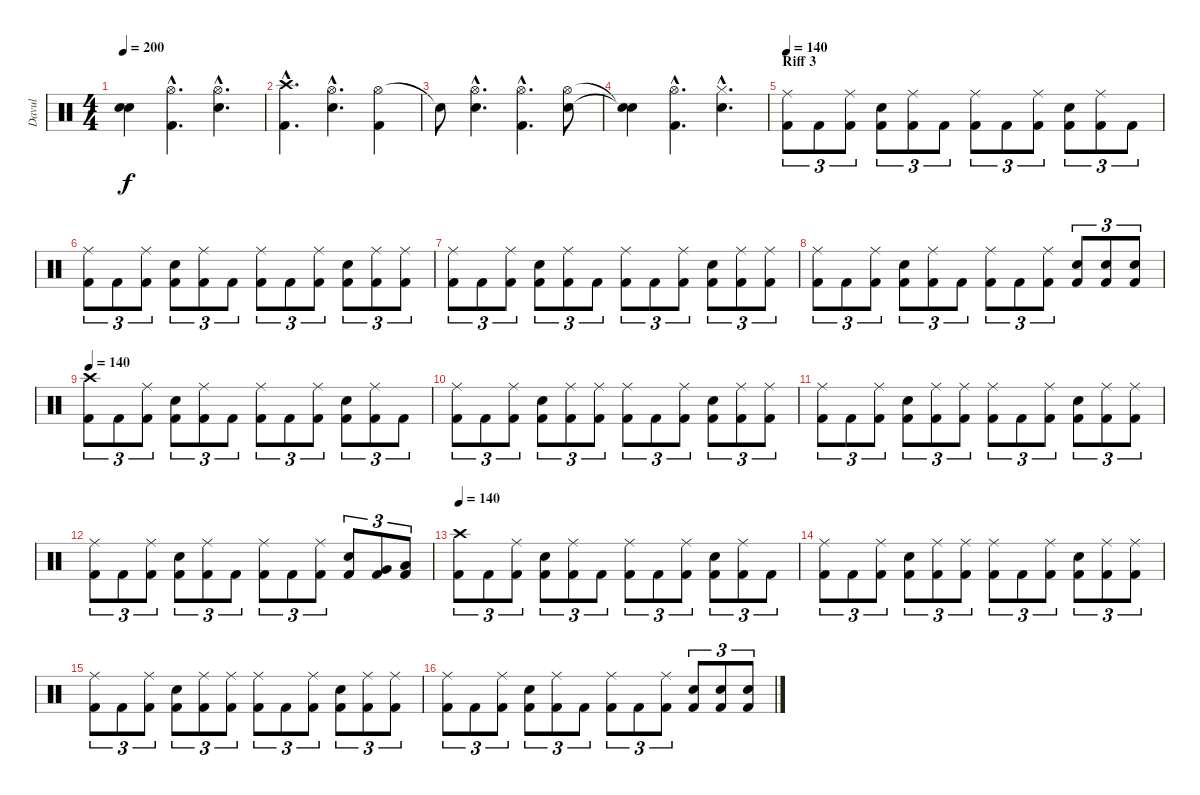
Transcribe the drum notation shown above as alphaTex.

\track ("Davul" "Davul") {instrument percussion}
\staff {score}
\articulation defaults
\ts (4 4)
\tempo 200
\clef neutral
\ks c
("Snare (hit)"{t} "Snare (hit)"{t}).4{dy f} ("Hi-Hat (open)"{hac} "Kick (hit) 2"{hac}).4{d} ("Hi-Hat (open)"{hac} "Electric Snare (hit)"{hac}).4{d} |
("Crash high (hit)"{hac} "Kick (hit) 2"{hac}).4{d} ("Hi-Hat (open)"{hac} "Electric Snare (hit)"{hac}).4{d} ("Hi-Hat (open)" "Kick (hit) 2").4 |
"Snare (hit)"{t}.8 ("Hi-Hat (open)"{hac} "Electric Snare (hit)"{hac}).4{d} ("Hi-Hat (open)"{hac} "Kick (hit) 2"{hac}).4{d} ("Hi-Hat (open)" "Electric Snare (hit)").8 |
("Snare (hit)"{t} "Snare (hit)"{t}).4 ("Hi-Hat (open)"{hac} "Kick (hit) 2"{hac}).4{d} ("Hi-Hat (closed)"{hac} "Electric Snare (hit)"{hac}).4{d} |
\section ("" "Riff 3")
\tempo 140
("Ride (middle)" "Kick (hit) 2").8{tu (3 2)} "Kick (hit) 2".8{tu (3 2)} ("Ride (middle)" "Kick (hit) 2").8{tu (3 2)} ("Electric Snare (hit)" "Kick (hit) 2").8{tu (3 2)} ("Ride (middle)" "Kick (hit) 2").8{tu (3 2)} "Kick (hit) 2".8{tu (3 2)} ("Ride (middle)" "Kick (hit) 2").8{tu (3 2)} "Kick (hit) 2".8{tu (3 2)} ("Ride (middle)" "Kick (hit) 2").8{tu (3 2)} ("Electric Snare (hit)" "Kick (hit) 2").8{tu (3 2)} ("Ride (middle)" "Kick (hit) 2").8{tu (3 2)} "Kick (hit) 2".8{tu (3 2)} |
("Ride (middle)" "Kick (hit) 2").8{tu (3 2)} "Kick (hit) 2".8{tu (3 2)} ("Ride (middle)" "Kick (hit) 2").8{tu (3 2)} ("Electric Snare (hit)" "Kick (hit) 2").8{tu (3 2)} ("Ride (middle)" "Kick (hit) 2").8{tu (3 2)} "Kick (hit) 2".8{tu (3 2)} ("Ride (middle)" "Kick (hit) 2").8{tu (3 2)} "Kick (hit) 2".8{tu (3 2)} ("Ride (middle)" "Kick (hit) 2").8{tu (3 2)} ("Electric Snare (hit)" "Kick (hit) 2").8{tu (3 2)} ("Ride (middle)" "Kick (hit) 2").8{tu (3 2)} ("Ride (middle)" "Kick (hit) 2").8{tu (3 2)} |
("Ride (middle)" "Kick (hit) 2").8{tu (3 2)} "Kick (hit) 2".8{tu (3 2)} ("Ride (middle)" "Kick (hit) 2").8{tu (3 2)} ("Electric Snare (hit)" "Kick (hit) 2").8{tu (3 2)} ("Ride (middle)" "Kick (hit) 2").8{tu (3 2)} "Kick (hit) 2".8{tu (3 2)} ("Ride (middle)" "Kick (hit) 2").8{tu (3 2)} "Kick (hit) 2".8{tu (3 2)} ("Ride (middle)" "Kick (hit) 2").8{tu (3 2)} ("Electric Snare (hit)" "Kick (hit) 2").8{tu (3 2)} ("Ride (middle)" "Kick (hit) 2").8{tu (3 2)} ("Ride (middle)" "Kick (hit) 2").8{tu (3 2)} |
("Ride (middle)" "Kick (hit) 2").8{tu (3 2)} "Kick (hit) 2".8{tu (3 2)} ("Ride (middle)" "Kick (hit) 2").8{tu (3 2)} ("Electric Snare (hit)" "Kick (hit) 2").8{tu (3 2)} ("Ride (middle)" "Kick (hit) 2").8{tu (3 2)} "Kick (hit) 2".8{tu (3 2)} ("Ride (middle)" "Kick (hit) 2").8{tu (3 2)} "Kick (hit) 2".8{tu (3 2)} ("Ride (middle)" "Kick (hit) 2").8{tu (3 2)} ("Electric Snare (hit)" "Kick (hit) 2").8{tu (3 2)} ("Electric Snare (hit)" "Kick (hit) 2").8{tu (3 2)} ("Electric Snare (hit)" "Kick (hit) 2").8{tu (3 2)} |
\tempo 140
("Crash high (hit)" "Kick (hit) 2").8{tu (3 2)} "Kick (hit) 2".8{tu (3 2)} ("Ride (middle)" "Kick (hit) 2").8{tu (3 2)} ("Electric Snare (hit)" "Kick (hit) 2").8{tu (3 2)} ("Ride (middle)" "Kick (hit) 2").8{tu (3 2)} "Kick (hit) 2".8{tu (3 2)} ("Ride (middle)" "Kick (hit) 2").8{tu (3 2)} "Kick (hit) 2".8{tu (3 2)} ("Ride (middle)" "Kick (hit) 2").8{tu (3 2)} ("Electric Snare (hit)" "Kick (hit) 2").8{tu (3 2)} ("Ride (middle)" "Kick (hit) 2").8{tu (3 2)} "Kick (hit) 2".8{tu (3 2)} |
("Ride (middle)" "Kick (hit) 2").8{tu (3 2)} "Kick (hit) 2".8{tu (3 2)} ("Ride (middle)" "Kick (hit) 2").8{tu (3 2)} ("Electric Snare (hit)" "Kick (hit) 2").8{tu (3 2)} ("Ride (middle)" "Kick (hit) 2").8{tu (3 2)} ("Ride (middle)" "Kick (hit) 2").8{tu (3 2)} ("Ride (middle)" "Kick (hit) 2").8{tu (3 2)} "Kick (hit) 2".8{tu (3 2)} ("Ride (middle)" "Kick (hit) 2").8{tu (3 2)} ("Electric Snare (hit)" "Kick (hit) 2").8{tu (3 2)} ("Ride (middle)" "Kick (hit) 2").8{tu (3 2)} ("Ride (middle)" "Kick (hit) 2").8{tu (3 2)} |
("Ride (middle)" "Kick (hit) 2").8{tu (3 2)} "Kick (hit) 2".8{tu (3 2)} ("Ride (middle)" "Kick (hit) 2").8{tu (3 2)} ("Electric Snare (hit)" "Kick (hit) 2").8{tu (3 2)} ("Ride (middle)" "Kick (hit) 2").8{tu (3 2)} ("Ride (middle)" "Kick (hit) 2").8{tu (3 2)} ("Ride (middle)" "Kick (hit) 2").8{tu (3 2)} "Kick (hit) 2".8{tu (3 2)} ("Ride (middle)" "Kick (hit) 2").8{tu (3 2)} ("Electric Snare (hit)" "Kick (hit) 2").8{tu (3 2)} ("Ride (middle)" "Kick (hit) 2").8{tu (3 2)} ("Ride (middle)" "Kick (hit) 2").8{tu (3 2)} |
("Ride (middle)" "Kick (hit) 2").8{tu (3 2)} "Kick (hit) 2".8{tu (3 2)} ("Ride (middle)" "Kick (hit) 2").8{tu (3 2)} ("Electric Snare (hit)" "Kick (hit) 2").8{tu (3 2)} ("Ride (middle)" "Kick (hit) 2").8{tu (3 2)} "Kick (hit) 2".8{tu (3 2)} ("Ride (middle)" "Kick (hit) 2").8{tu (3 2)} "Kick (hit) 2".8{tu (3 2)} ("Ride (middle)" "Kick (hit) 2").8{tu (3 2)} ("Electric Snare (hit)" "Kick (hit) 2").8{tu (3 2)} ("Very Low Tom (hit)" "Kick (hit) 2").8{tu (3 2)} ("Low Floor Tom (hit)" "Kick (hit) 2").8{tu (3 2)} |
\tempo 140
("Crash high (hit)" "Kick (hit) 2").8{tu (3 2)} "Kick (hit) 2".8{tu (3 2)} ("Ride (middle)" "Kick (hit) 2").8{tu (3 2)} ("Electric Snare (hit)" "Kick (hit) 2").8{tu (3 2)} ("Ride (middle)" "Kick (hit) 2").8{tu (3 2)} "Kick (hit) 2".8{tu (3 2)} ("Ride (middle)" "Kick (hit) 2").8{tu (3 2)} "Kick (hit) 2".8{tu (3 2)} ("Ride (middle)" "Kick (hit) 2").8{tu (3 2)} ("Electric Snare (hit)" "Kick (hit) 2").8{tu (3 2)} ("Ride (middle)" "Kick (hit) 2").8{tu (3 2)} "Kick (hit) 2".8{tu (3 2)} |
("Ride (middle)" "Kick (hit) 2").8{tu (3 2)} "Kick (hit) 2".8{tu (3 2)} ("Ride (middle)" "Kick (hit) 2").8{tu (3 2)} ("Electric Snare (hit)" "Kick (hit) 2").8{tu (3 2)} ("Ride (middle)" "Kick (hit) 2").8{tu (3 2)} ("Ride (middle)" "Kick (hit) 2").8{tu (3 2)} ("Ride (middle)" "Kick (hit) 2").8{tu (3 2)} "Kick (hit) 2".8{tu (3 2)} ("Ride (middle)" "Kick (hit) 2").8{tu (3 2)} ("Electric Snare (hit)" "Kick (hit) 2").8{tu (3 2)} ("Ride (middle)" "Kick (hit) 2").8{tu (3 2)} ("Ride (middle)" "Kick (hit) 2").8{tu (3 2)} |
("Ride (middle)" "Kick (hit) 2").8{tu (3 2)} "Kick (hit) 2".8{tu (3 2)} ("Ride (middle)" "Kick (hit) 2").8{tu (3 2)} ("Electric Snare (hit)" "Kick (hit) 2").8{tu (3 2)} ("Ride (middle)" "Kick (hit) 2").8{tu (3 2)} ("Ride (middle)" "Kick (hit) 2").8{tu (3 2)} ("Ride (middle)" "Kick (hit) 2").8{tu (3 2)} "Kick (hit) 2".8{tu (3 2)} ("Ride (middle)" "Kick (hit) 2").8{tu (3 2)} ("Electric Snare (hit)" "Kick (hit) 2").8{tu (3 2)} ("Ride (middle)" "Kick (hit) 2").8{tu (3 2)} ("Ride (middle)" "Kick (hit) 2").8{tu (3 2)} |
("Ride (middle)" "Kick (hit) 2").8{tu (3 2)} "Kick (hit) 2".8{tu (3 2)} ("Ride (middle)" "Kick (hit) 2").8{tu (3 2)} ("Electric Snare (hit)" "Kick (hit) 2").8{tu (3 2)} ("Ride (middle)" "Kick (hit) 2").8{tu (3 2)} "Kick (hit) 2".8{tu (3 2)} ("Ride (middle)" "Kick (hit) 2").8{tu (3 2)} "Kick (hit) 2".8{tu (3 2)} ("Ride (middle)" "Kick (hit) 2").8{tu (3 2)} ("Electric Snare (hit)" "Kick (hit) 2").8{tu (3 2)} ("Electric Snare (hit)" "Kick (hit) 2").8{tu (3 2)} ("Electric Snare (hit)" "Kick (hit) 2").8{tu (3 2)}
